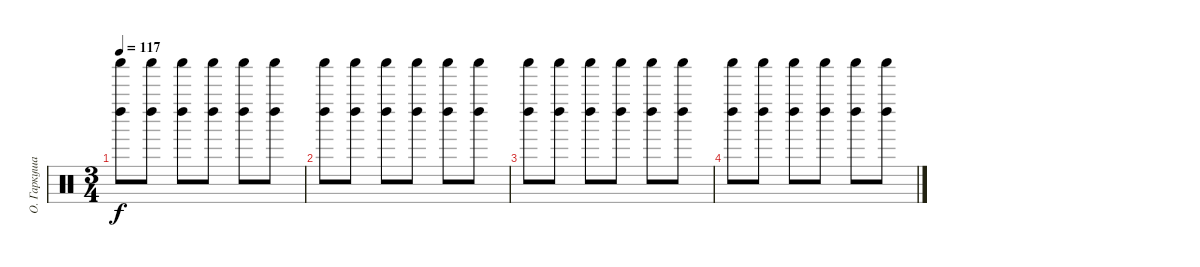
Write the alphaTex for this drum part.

\track ("О. Гаркуша" "О. Гаркуша") {instrument percussion}
\staff {score}
\articulation defaults
\ts (3 4)
\tempo 117
\clef neutral
\ks c
("Left Maraca (hit)" "Shaker (hit)").8{dy f} ("Left Maraca (hit)" "Shaker (hit)").8 ("Left Maraca (hit)" "Shaker (hit)").8 ("Left Maraca (hit)" "Shaker (hit)").8 ("Left Maraca (hit)" "Shaker (hit)").8 ("Left Maraca (hit)" "Shaker (hit)").8 |
("Left Maraca (hit)" "Shaker (hit)").8 ("Left Maraca (hit)" "Shaker (hit)").8 ("Left Maraca (hit)" "Shaker (hit)").8 ("Left Maraca (hit)" "Shaker (hit)").8 ("Left Maraca (hit)" "Shaker (hit)").8 ("Left Maraca (hit)" "Shaker (hit)").8 |
("Left Maraca (hit)" "Shaker (hit)").8 ("Left Maraca (hit)" "Shaker (hit)").8 ("Left Maraca (hit)" "Shaker (hit)").8 ("Left Maraca (hit)" "Shaker (hit)").8 ("Left Maraca (hit)" "Shaker (hit)").8 ("Left Maraca (hit)" "Shaker (hit)").8 |
("Left Maraca (hit)" "Shaker (hit)").8 ("Left Maraca (hit)" "Shaker (hit)").8 ("Left Maraca (hit)" "Shaker (hit)").8 ("Left Maraca (hit)" "Shaker (hit)").8 ("Left Maraca (hit)" "Shaker (hit)").8 ("Left Maraca (hit)" "Shaker (hit)").8
